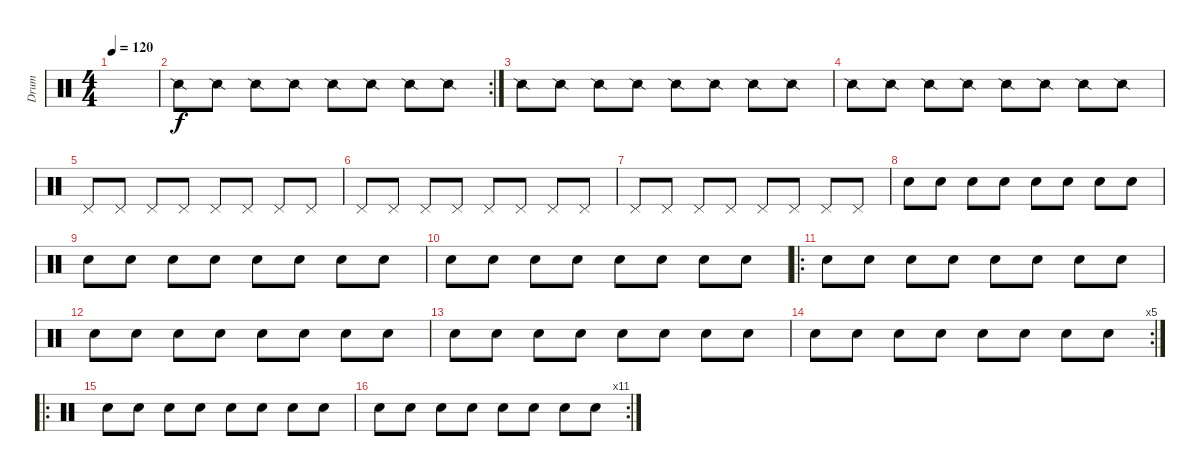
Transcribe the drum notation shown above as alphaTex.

\track ("Drum" "Drum") {instrument percussion}
\staff {score}
\articulation defaults
\ts (4 4)
\tempo 120
\clef neutral
\ks c
|
\rc 2 "Snare (side stick) 2".8 "Snare (side stick) 2".8 "Snare (side stick) 2".8 "Snare (side stick) 2".8 "Snare (side stick) 2".8 "Snare (side stick) 2".8 "Snare (side stick) 2".8 "Snare (side stick) 2".8
|
"Snare (side stick) 2".8 "Snare (side stick) 2".8 "Snare (side stick) 2".8 "Snare (side stick) 2".8 "Snare (side stick) 2".8 "Snare (side stick) 2".8 "Snare (side stick) 2".8 "Snare (side stick) 2".8 |
"Snare (side stick) 2".8 "Snare (side stick) 2".8 "Snare (side stick) 2".8 "Snare (side stick) 2".8 "Snare (side stick) 2".8 "Snare (side stick) 2".8 "Snare (side stick) 2".8 "Snare (side stick) 2".8 |
"Pedal Hi-Hat (hit)".8 "Pedal Hi-Hat (hit)".8 "Pedal Hi-Hat (hit)".8 "Pedal Hi-Hat (hit)".8 "Pedal Hi-Hat (hit)".8 "Pedal Hi-Hat (hit)".8 "Pedal Hi-Hat (hit)".8 "Pedal Hi-Hat (hit)".8 |
"Pedal Hi-Hat (hit)".8 "Pedal Hi-Hat (hit)".8 "Pedal Hi-Hat (hit)".8 "Pedal Hi-Hat (hit)".8 "Pedal Hi-Hat (hit)".8 "Pedal Hi-Hat (hit)".8 "Pedal Hi-Hat (hit)".8 "Pedal Hi-Hat (hit)".8 |
"Pedal Hi-Hat (hit)".8 "Pedal Hi-Hat (hit)".8 "Pedal Hi-Hat (hit)".8 "Pedal Hi-Hat (hit)".8 "Pedal Hi-Hat (hit)".8 "Pedal Hi-Hat (hit)".8 "Pedal Hi-Hat (hit)".8 "Pedal Hi-Hat (hit)".8 |
"Snare (hit) 2".8 "Snare (hit) 2".8 "Snare (hit) 2".8 "Snare (hit) 2".8 "Snare (hit) 2".8 "Snare (hit) 2".8 "Snare (hit) 2".8 "Snare (hit) 2".8 |
"Snare (hit) 2".8 "Snare (hit) 2".8 "Snare (hit) 2".8 "Snare (hit) 2".8 "Snare (hit) 2".8 "Snare (hit) 2".8 "Snare (hit) 2".8 "Snare (hit) 2".8 |
"Snare (hit) 2".8 "Snare (hit) 2".8 "Snare (hit) 2".8 "Snare (hit) 2".8 "Snare (hit) 2".8 "Snare (hit) 2".8 "Snare (hit) 2".8 "Snare (hit) 2".8 |
\ro "Snare (hit) 2".8 "Snare (hit) 2".8 "Snare (hit) 2".8 "Snare (hit) 2".8 "Snare (hit) 2".8 "Snare (hit) 2".8 "Snare (hit) 2".8 "Snare (hit) 2".8
|
"Snare (hit) 2".8 "Snare (hit) 2".8 "Snare (hit) 2".8 "Snare (hit) 2".8 "Snare (hit) 2".8 "Snare (hit) 2".8 "Snare (hit) 2".8 "Snare (hit) 2".8 |
"Snare (hit) 2".8 "Snare (hit) 2".8 "Snare (hit) 2".8 "Snare (hit) 2".8 "Snare (hit) 2".8 "Snare (hit) 2".8 "Snare (hit) 2".8 "Snare (hit) 2".8 |
\rc 5 "Snare (hit) 2".8 "Snare (hit) 2".8 "Snare (hit) 2".8 "Snare (hit) 2".8 "Snare (hit) 2".8 "Snare (hit) 2".8 "Snare (hit) 2".8 "Snare (hit) 2".8
|
\ro "Snare (hit) 2".8 "Snare (hit) 2".8 "Snare (hit) 2".8 "Snare (hit) 2".8 "Snare (hit) 2".8 "Snare (hit) 2".8 "Snare (hit) 2".8 "Snare (hit) 2".8
|
\rc 11 "Snare (hit) 2".8 "Snare (hit) 2".8 "Snare (hit) 2".8 "Snare (hit) 2".8 "Snare (hit) 2".8 "Snare (hit) 2".8 "Snare (hit) 2".8 "Snare (hit) 2".8
